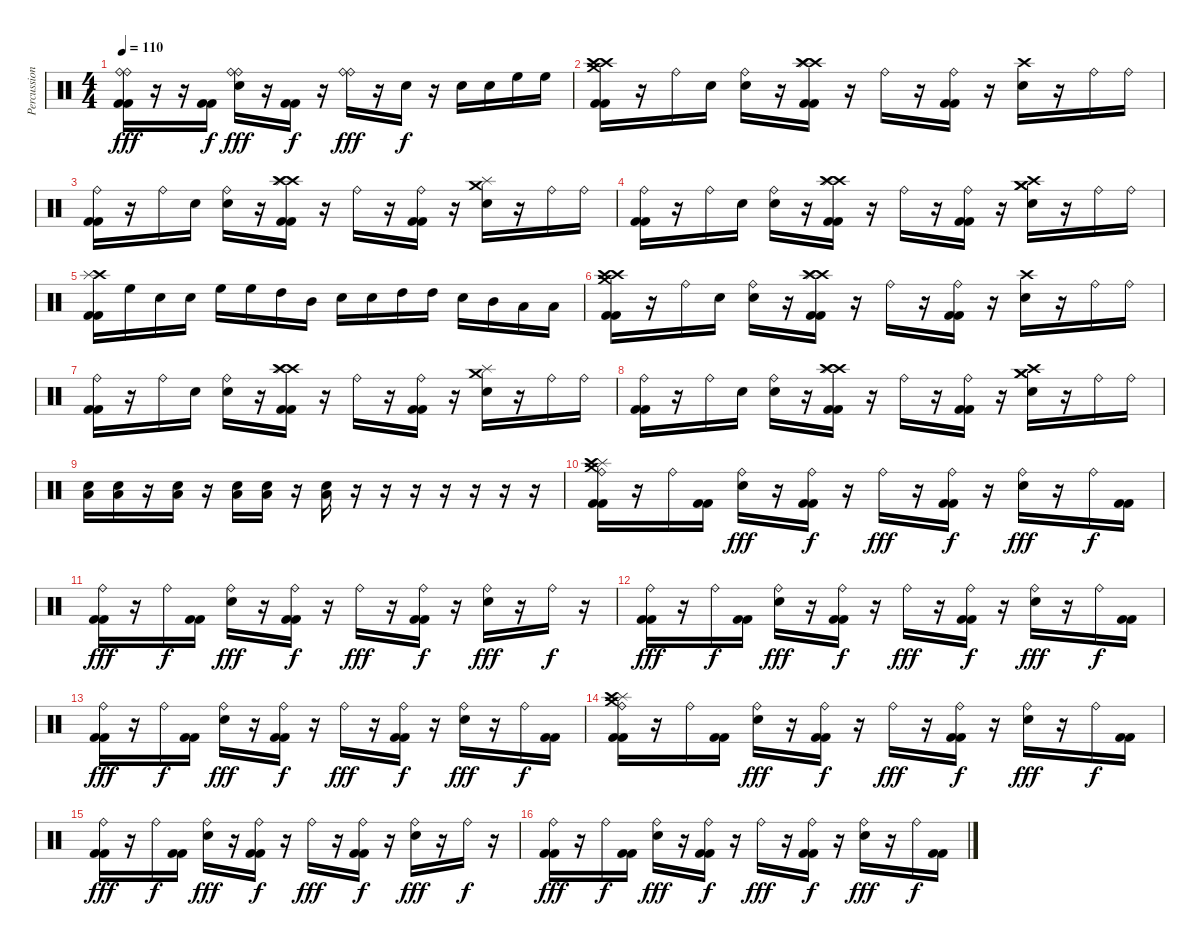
\track ("Percussion" "Percussion") {instrument percussion}
\staff {score}
\articulation defaults
\ts (4 4)
\tempo 110
\clef neutral
\ks c
("Ride (bell)" "Ride (bell)" "Kick (hit) 2" "Kick (hit) 2").16{dy fff} r.16 r.16 ("Kick (hit) 2" "Kick (hit) 2").16{dy f} ("Ride (bell)" "Ride (bell)" "Electric Snare (hit)").16{dy fff} r.16 ("Kick (hit) 2" "Kick (hit) 2").16{dy f} r.16 ("Ride (bell)" "Ride (bell)").16{dy fff} r.16 "Electric Snare (hit)".16{dy f} r.16 "Electric Snare (hit)".16 "Electric Snare (hit)".16 "High Floor Tom (hit)".16 "High Floor Tom (hit)".16 |
("Crash high (hit)" "Crash high (hit)" "Crash medium (hit)" "Kick (hit) 2" "Kick (hit) 2").16 r.16 "Ride (bell)".16 "Electric Snare (hit)".16 ("Ride (bell)" "Electric Snare (hit)").16 r.16 ("Crash high (hit)" "Crash high (hit)" "Splash (hit)" "Kick (hit) 2" "Kick (hit) 2").16 r.16 "Ride (bell)".16 r.16 ("Ride (bell)" "Kick (hit) 2" "Kick (hit) 2").16 r.16 ("Crash high (hit)" "Electric Snare (hit)").16 r.16 "Ride (bell)".16 "Ride (bell)".16 |
("Ride (bell)" "Kick (hit) 2" "Kick (hit) 2").16 r.16 "Ride (bell)".16 "Electric Snare (hit)".16 ("Ride (bell)" "Electric Snare (hit)").16 r.16 ("Crash high (hit)" "Crash high (hit)" "Splash (hit)" "Kick (hit) 2" "Kick (hit) 2").16 r.16 "Ride (bell)".16 r.16 ("Ride (bell)" "Kick (hit) 2" "Kick (hit) 2").16 r.16 ("Crash medium (hit)" "Splash (hit)" "Electric Snare (hit)").16 r.16 "Ride (bell)".16 "Ride (bell)".16 |
("Ride (bell)" "Kick (hit) 2" "Kick (hit) 2").16 r.16 "Ride (bell)".16 "Electric Snare (hit)".16 ("Ride (bell)" "Electric Snare (hit)").16 r.16 ("Crash high (hit)" "Crash high (hit)" "Splash (hit)" "Kick (hit) 2" "Kick (hit) 2").16 r.16 "Ride (bell)".16 r.16 ("Ride (bell)" "Kick (hit) 2" "Kick (hit) 2").16 r.16 ("Crash high (hit)" "Crash medium (hit)" "Crash medium (hit)" "Electric Snare (hit)").16 r.16 "Ride (bell)".16 "Ride (bell)".16 |
("Crash high (hit)" "Splash (hit)" "Kick (hit) 2" "Kick (hit) 2").16 "High Floor Tom (hit)".16 "Electric Snare (hit)".16 "Electric Snare (hit)".16 "High Floor Tom (hit)".16 "High Floor Tom (hit)".16 "High Tom (hit)".16 "Mid Tom (hit)".16 "Electric Snare (hit)".16 "Electric Snare (hit)".16 "High Tom (hit)".16 "High Tom (hit)".16 "Electric Snare (hit)".16 "Mid Tom (hit)".16 "Low Tom (hit)".16 "Low Tom (hit)".16 |
("Crash high (hit)" "Crash high (hit)" "Crash medium (hit)" "Kick (hit) 2" "Kick (hit) 2").16 r.16 "Ride (bell)".16 "Electric Snare (hit)".16 ("Ride (bell)" "Electric Snare (hit)").16 r.16 ("Crash high (hit)" "Crash high (hit)" "Splash (hit)" "Kick (hit) 2" "Kick (hit) 2").16 r.16 "Ride (bell)".16 r.16 ("Ride (bell)" "Kick (hit) 2" "Kick (hit) 2").16 r.16 ("Crash high (hit)" "Electric Snare (hit)").16 r.16 "Ride (bell)".16 "Ride (bell)".16 |
("Ride (bell)" "Kick (hit) 2" "Kick (hit) 2").16 r.16 "Ride (bell)".16 "Electric Snare (hit)".16 ("Ride (bell)" "Electric Snare (hit)").16 r.16 ("Crash high (hit)" "Crash high (hit)" "Splash (hit)" "Kick (hit) 2" "Kick (hit) 2").16 r.16 "Ride (bell)".16 r.16 ("Ride (bell)" "Kick (hit) 2" "Kick (hit) 2").16 r.16 ("Crash medium (hit)" "Splash (hit)" "Electric Snare (hit)").16 r.16 "Ride (bell)".16 "Ride (bell)".16 |
("Ride (bell)" "Kick (hit) 2" "Kick (hit) 2").16 r.16 "Ride (bell)".16 "Electric Snare (hit)".16 ("Ride (bell)" "Electric Snare (hit)").16 r.16 ("Crash high (hit)" "Crash high (hit)" "Splash (hit)" "Kick (hit) 2" "Kick (hit) 2").16 r.16 "Ride (bell)".16 r.16 ("Ride (bell)" "Kick (hit) 2" "Kick (hit) 2").16 r.16 ("Crash high (hit)" "Crash medium (hit)" "Crash medium (hit)" "Electric Snare (hit)").16 r.16 "Ride (bell)".16 "Ride (bell)".16 |
("Low Tom (hit)" "Electric Snare (hit)").16 ("Low Tom (hit)" "Electric Snare (hit)").16 r.16 ("Low Tom (hit)" "Electric Snare (hit)").16 r.16 ("Low Tom (hit)" "Electric Snare (hit)").16 ("Low Tom (hit)" "Electric Snare (hit)").16 r.16 ("Low Tom (hit)" "Electric Snare (hit)").16 r.16 r.16 r.16 r.16 r.16 r.16 r.16 |
("Ride (bell)" "Crash medium (hit)" "Splash (hit)" "Crash high (hit)" "Kick (hit) 2" "Kick (hit) 2").16 r.16 "Ride (bell)".16 ("Kick (hit) 2" "Kick (hit) 2").16 ("Ride (bell)" "Electric Snare (hit)").16{dy fff} r.16 ("Ride (bell)" "Kick (hit) 2" "Kick (hit) 2").16{dy f} r.16 "Ride (bell)".16{dy fff} r.16 ("Ride (bell)" "Kick (hit) 2" "Kick (hit) 2").16{dy f} r.16 ("Ride (bell)" "Electric Snare (hit)").16{dy fff} r.16 "Ride (bell)".16{dy f} ("Kick (hit) 2" "Kick (hit) 2").16 |
("Ride (bell)" "Kick (hit) 2" "Kick (hit) 2").16{dy fff} r.16 "Ride (bell)".16{dy f} ("Kick (hit) 2" "Kick (hit) 2").16 ("Ride (bell)" "Electric Snare (hit)").16{dy fff} r.16 ("Ride (bell)" "Kick (hit) 2" "Kick (hit) 2").16{dy f} r.16 "Ride (bell)".16{dy fff} r.16 ("Ride (bell)" "Kick (hit) 2" "Kick (hit) 2").16{dy f} r.16 ("Ride (bell)" "Electric Snare (hit)").16{dy fff} r.16 "Ride (bell)".16{dy f} r.16 |
("Ride (bell)" "Kick (hit) 2" "Kick (hit) 2").16{dy fff} r.16 "Ride (bell)".16{dy f} ("Kick (hit) 2" "Kick (hit) 2").16 ("Ride (bell)" "Electric Snare (hit)").16{dy fff} r.16 ("Ride (bell)" "Kick (hit) 2" "Kick (hit) 2").16{dy f} r.16 "Ride (bell)".16{dy fff} r.16 ("Ride (bell)" "Kick (hit) 2" "Kick (hit) 2").16{dy f} r.16 ("Ride (bell)" "Electric Snare (hit)").16{dy fff} r.16 "Ride (bell)".16{dy f} ("Kick (hit) 2" "Kick (hit) 2").16 |
("Ride (bell)" "Kick (hit) 2" "Kick (hit) 2").16{dy fff} r.16 "Ride (bell)".16{dy f} ("Kick (hit) 2" "Kick (hit) 2").16 ("Ride (bell)" "Electric Snare (hit)").16{dy fff} r.16 ("Ride (bell)" "Kick (hit) 2" "Kick (hit) 2").16{dy f} r.16 "Ride (bell)".16{dy fff} r.16 ("Ride (bell)" "Kick (hit) 2" "Kick (hit) 2").16{dy f} r.16 ("Ride (bell)" "Electric Snare (hit)").16{dy fff} r.16 "Ride (bell)".16{dy f} ("Kick (hit) 2" "Kick (hit) 2").16 |
("Ride (bell)" "Crash medium (hit)" "Splash (hit)" "Crash high (hit)" "Kick (hit) 2" "Kick (hit) 2").16 r.16 "Ride (bell)".16 ("Kick (hit) 2" "Kick (hit) 2").16 ("Ride (bell)" "Electric Snare (hit)").16{dy fff} r.16 ("Ride (bell)" "Kick (hit) 2" "Kick (hit) 2").16{dy f} r.16 "Ride (bell)".16{dy fff} r.16 ("Ride (bell)" "Kick (hit) 2" "Kick (hit) 2").16{dy f} r.16 ("Ride (bell)" "Electric Snare (hit)").16{dy fff} r.16 "Ride (bell)".16{dy f} ("Kick (hit) 2" "Kick (hit) 2").16 |
("Ride (bell)" "Kick (hit) 2" "Kick (hit) 2").16{dy fff} r.16 "Ride (bell)".16{dy f} ("Kick (hit) 2" "Kick (hit) 2").16 ("Ride (bell)" "Electric Snare (hit)").16{dy fff} r.16 ("Ride (bell)" "Kick (hit) 2" "Kick (hit) 2").16{dy f} r.16 "Ride (bell)".16{dy fff} r.16 ("Ride (bell)" "Kick (hit) 2" "Kick (hit) 2").16{dy f} r.16 ("Ride (bell)" "Electric Snare (hit)").16{dy fff} r.16 "Ride (bell)".16{dy f} r.16 |
("Ride (bell)" "Kick (hit) 2" "Kick (hit) 2").16{dy fff} r.16 "Ride (bell)".16{dy f} ("Kick (hit) 2" "Kick (hit) 2").16 ("Ride (bell)" "Electric Snare (hit)").16{dy fff} r.16 ("Ride (bell)" "Kick (hit) 2" "Kick (hit) 2").16{dy f} r.16 "Ride (bell)".16{dy fff} r.16 ("Ride (bell)" "Kick (hit) 2" "Kick (hit) 2").16{dy f} r.16 ("Ride (bell)" "Electric Snare (hit)").16{dy fff} r.16 "Ride (bell)".16{dy f} ("Kick (hit) 2" "Kick (hit) 2").16
